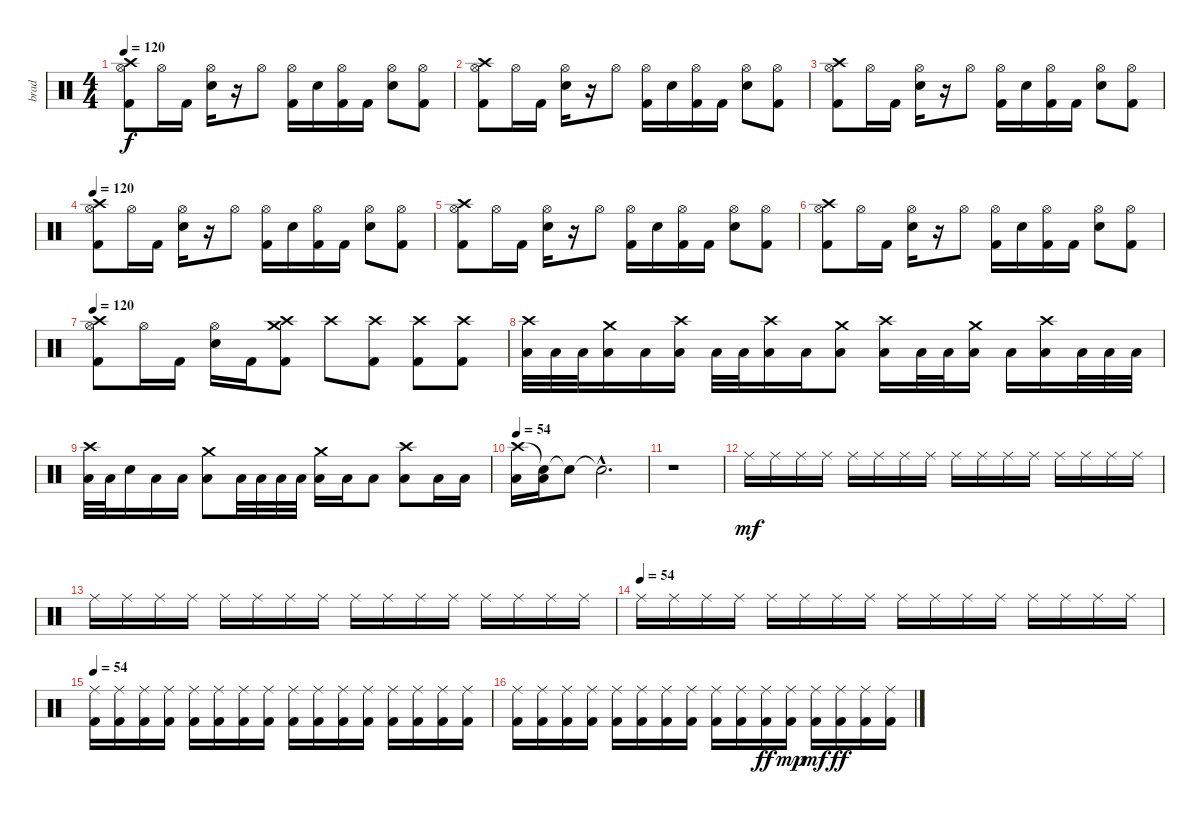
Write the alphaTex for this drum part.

\track ("brad" "brad") {instrument percussion}
\staff {score}
\articulation defaults
\ts (4 4)
\tempo 120
\clef neutral
\ks c
("Crash high (hit)" "Hi-Hat (open)" "Kick (hit) 2").8{dy f} "Hi-Hat (open)".16 "Kick (hit) 2".16 ("Hi-Hat (open)" "Electric Snare (hit)").16 r.16 "Hi-Hat (open)".8 ("Hi-Hat (open)" "Kick (hit) 2").16 "Electric Snare (hit)".16 ("Hi-Hat (open)" "Kick (hit) 2").16 "Kick (hit) 2".16 ("Hi-Hat (open)" "Electric Snare (hit)").8 ("Hi-Hat (open)" "Kick (hit) 2").8 |
("Crash high (hit)" "Hi-Hat (open)" "Kick (hit) 2").8 "Hi-Hat (open)".16 "Kick (hit) 2".16 ("Hi-Hat (open)" "Electric Snare (hit)").16 r.16 "Hi-Hat (open)".8 ("Hi-Hat (open)" "Kick (hit) 2").16 "Electric Snare (hit)".16 ("Hi-Hat (open)" "Kick (hit) 2").16 "Kick (hit) 2".16 ("Hi-Hat (open)" "Electric Snare (hit)").8 ("Hi-Hat (open)" "Kick (hit) 2").8 |
("Crash high (hit)" "Hi-Hat (open)" "Kick (hit) 2").8 "Hi-Hat (open)".16 "Kick (hit) 2".16 ("Hi-Hat (open)" "Electric Snare (hit)").16 r.16 "Hi-Hat (open)".8 ("Hi-Hat (open)" "Kick (hit) 2").16 "Electric Snare (hit)".16 ("Hi-Hat (open)" "Kick (hit) 2").16 "Kick (hit) 2".16 ("Hi-Hat (open)" "Electric Snare (hit)").8 ("Hi-Hat (open)" "Kick (hit) 2").8 |
\tempo 120
("Crash high (hit)" "Hi-Hat (open)" "Kick (hit) 2").8 "Hi-Hat (open)".16 "Kick (hit) 2".16 ("Hi-Hat (open)" "Electric Snare (hit)").16 r.16 "Hi-Hat (open)".8 ("Hi-Hat (open)" "Kick (hit) 2").16 "Electric Snare (hit)".16 ("Hi-Hat (open)" "Kick (hit) 2").16 "Kick (hit) 2".16 ("Hi-Hat (open)" "Electric Snare (hit)").8 ("Hi-Hat (open)" "Kick (hit) 2").8 |
("Crash high (hit)" "Hi-Hat (open)" "Kick (hit) 2").8 "Hi-Hat (open)".16 "Kick (hit) 2".16 ("Hi-Hat (open)" "Electric Snare (hit)").16 r.16 "Hi-Hat (open)".8 ("Hi-Hat (open)" "Kick (hit) 2").16 "Electric Snare (hit)".16 ("Hi-Hat (open)" "Kick (hit) 2").16 "Kick (hit) 2".16 ("Hi-Hat (open)" "Electric Snare (hit)").8 ("Hi-Hat (open)" "Kick (hit) 2").8 |
("Crash high (hit)" "Hi-Hat (open)" "Kick (hit) 2").8 "Hi-Hat (open)".16 "Kick (hit) 2".16 ("Hi-Hat (open)" "Electric Snare (hit)").16 r.16 "Hi-Hat (open)".8 ("Hi-Hat (open)" "Kick (hit) 2").16 "Electric Snare (hit)".16 ("Hi-Hat (open)" "Kick (hit) 2").16 "Kick (hit) 2".16 ("Hi-Hat (open)" "Electric Snare (hit)").8 ("Hi-Hat (open)" "Kick (hit) 2").8 |
\tempo 120
("Crash high (hit)" "Hi-Hat (open)" "Kick (hit) 2").8 "Hi-Hat (open)".16 "Kick (hit) 2".16 ("Hi-Hat (open)" "Electric Snare (hit)").16 "Kick (hit) 2".16 ("Crash high (hit)" "Crash medium (hit)" "Kick (hit) 2").8 "Crash high (hit)".8 ("Crash high (hit)" "Kick (hit) 2").8 ("Crash high (hit)" "Kick (hit) 2").8 ("Crash high (hit)" "Kick (hit) 2").8 |
("Crash high (hit)" "Low Floor Tom (hit)").32 "Low Floor Tom (hit)".32 "Low Floor Tom (hit)".32 ("Crash medium (hit)" "Low Floor Tom (hit)").16 "Low Floor Tom (hit)".16 ("Crash high (hit)" "Low Floor Tom (hit)").16 "Low Floor Tom (hit)".32 "Low Floor Tom (hit)".32 ("Crash high (hit)" "Low Floor Tom (hit)").16 "Low Floor Tom (hit)".16 ("Crash medium (hit)" "Low Floor Tom (hit)").8 ("Crash high (hit)" "Low Floor Tom (hit)").16 "Low Floor Tom (hit)".32 "Low Floor Tom (hit)".32 ("Crash medium (hit)" "Low Floor Tom (hit)").16 "Low Floor Tom (hit)".16 ("Crash high (hit)" "Low Floor Tom (hit)").16 "Low Floor Tom (hit)".32 "Low Floor Tom (hit)".32 "Low Floor Tom (hit)".32 |
("Crash high (hit)" "Low Floor Tom (hit)").32 "Low Floor Tom (hit)".32 "Snare (hit)".16 "Low Floor Tom (hit)".16 "Low Floor Tom (hit)".16 ("Crash medium (hit)" "Low Floor Tom (hit)").8 "Low Floor Tom (hit)".32 "Low Floor Tom (hit)".32 "Low Floor Tom (hit)".32 "Low Floor Tom (hit)".32 ("Crash medium (hit)" "Low Floor Tom (hit)").16 "Low Floor Tom (hit)".16 "Low Floor Tom (hit)".8 ("Crash high (hit)" "Low Floor Tom (hit)").8 "Low Floor Tom (hit)".16 "Low Floor Tom (hit)".16 |
\tempo 54
("Crash high (hit)" "Low Floor Tom (hit)").16 ("Snare (hit)"{t} "Low Floor Tom (hit)").16 "Snare (hit)"{t}.8 "Snare (hit)"{hac t}.2{d} |
r.1 |
"Ride (middle)".16{dy mf} "Ride (middle)".16 "Ride (middle)".16 "Ride (middle)".16 "Ride (middle)".16 "Ride (middle)".16 "Ride (middle)".16 "Ride (middle)".16 "Ride (middle)".16 "Ride (middle)".16 "Ride (middle)".16 "Ride (middle)".16 "Ride (middle)".16 "Ride (middle)".16 "Ride (middle)".16 "Ride (middle)".16 |
"Ride (middle)".16 "Ride (middle)".16 "Ride (middle)".16 "Ride (middle)".16 "Ride (middle)".16 "Ride (middle)".16 "Ride (middle)".16 "Ride (middle)".16 "Ride (middle)".16 "Ride (middle)".16 "Ride (middle)".16 "Ride (middle)".16 "Ride (middle)".16 "Ride (middle)".16 "Ride (middle)".16 "Ride (middle)".16 |
\tempo (54)
"Ride (middle)".16 "Ride (middle)".16 "Ride (middle)".16 "Ride (middle)".16 "Ride (middle)".16 "Ride (middle)".16 "Ride (middle)".16 "Ride (middle)".16 "Ride (middle)".16 "Ride (middle)".16 "Ride (middle)".16 "Ride (middle)".16 "Ride (middle)".16 "Ride (middle)".16 "Ride (middle)".16 "Ride (middle)".16 |
\tempo 54
("Ride (middle)" "Kick (hit) 2").16 ("Ride (middle)" "Kick (hit) 2").16 ("Ride (middle)" "Kick (hit) 2").16 ("Ride (middle)" "Kick (hit) 2").16 ("Ride (middle)" "Kick (hit) 2").16 ("Ride (middle)" "Kick (hit) 2").16 ("Ride (middle)" "Kick (hit) 2").16 ("Ride (middle)" "Kick (hit) 2").16 ("Ride (middle)" "Kick (hit) 2").16 ("Ride (middle)" "Kick (hit) 2").16 ("Ride (middle)" "Kick (hit) 2").16 ("Ride (middle)" "Kick (hit) 2").16 ("Ride (middle)" "Kick (hit) 2").16 ("Ride (middle)" "Kick (hit) 2").16 ("Ride (middle)" "Kick (hit) 2").16 ("Ride (middle)" "Kick (hit) 2").16 |
("Ride (middle)" "Kick (hit) 2").16 ("Ride (middle)" "Kick (hit) 2").16 ("Ride (middle)" "Kick (hit) 2").16 ("Ride (middle)" "Kick (hit) 2").16 ("Ride (middle)" "Kick (hit) 2").16 ("Ride (middle)" "Kick (hit) 2").16 ("Ride (middle)" "Kick (hit) 2").16 ("Ride (middle)" "Kick (hit) 2").16 ("Ride (middle)" "Kick (hit) 2").16 ("Ride (middle)" "Kick (hit) 2").16 ("Ride (middle)" "Kick (hit) 2").16{dy ff} ("Ride (middle)" "Kick (hit) 2").16{dy mp} ("Ride (middle)" "Kick (hit) 2").16{dy mf} ("Ride (middle)" "Kick (hit) 2").16{dy ff} ("Ride (middle)" "Kick (hit) 2").16 ("Ride (middle)" "Kick (hit) 2").16
